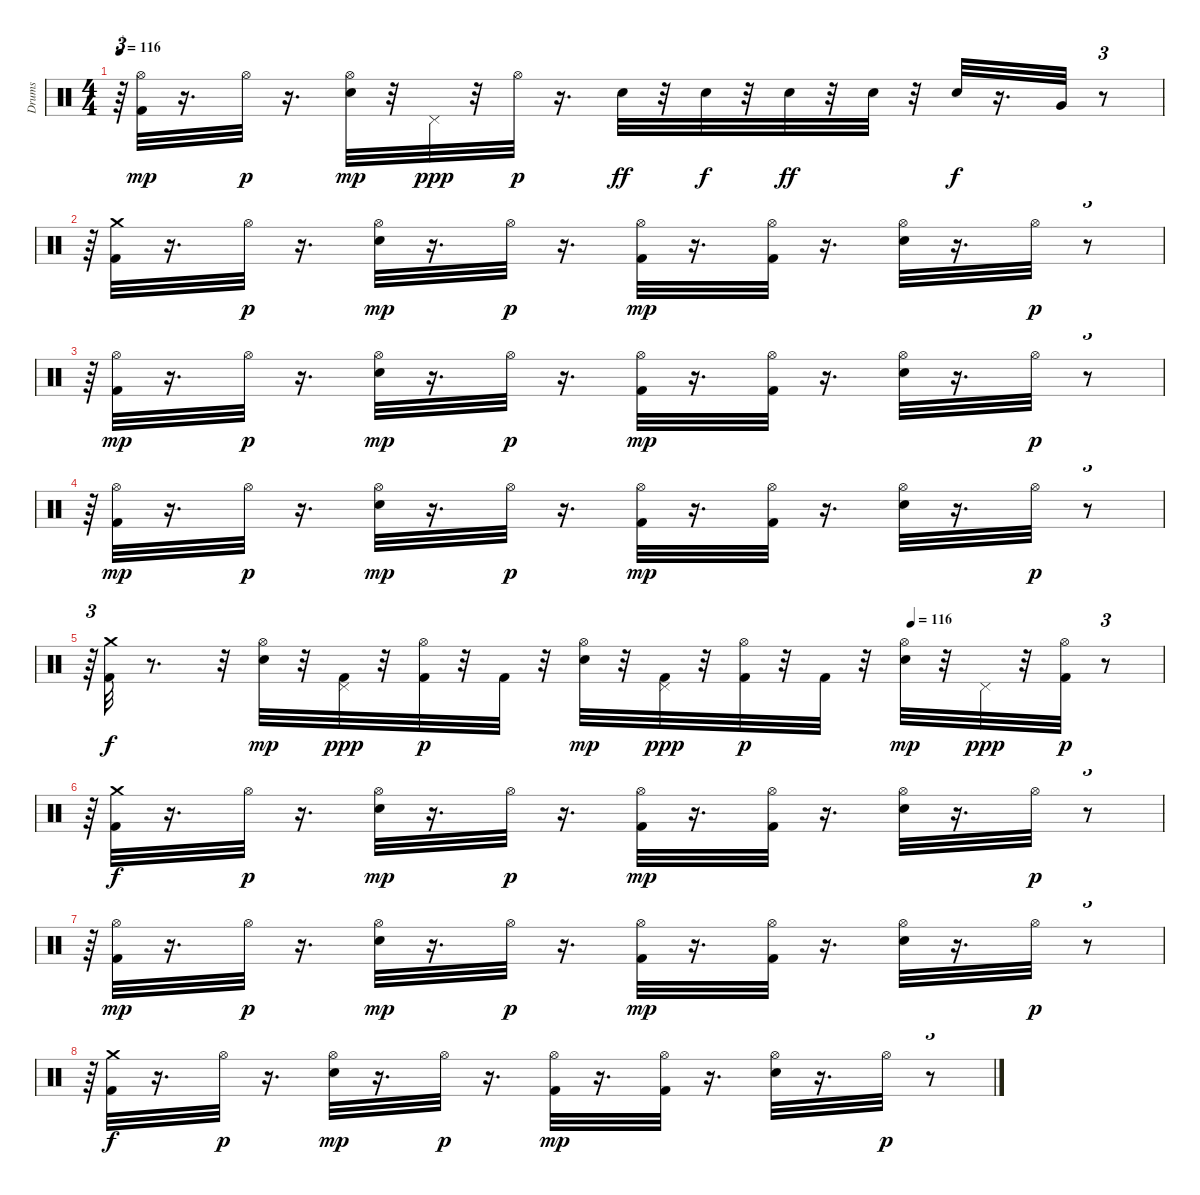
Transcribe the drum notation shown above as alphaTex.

\track ("Drums" "Drums") {instrument percussion}
\staff {score}
\articulation defaults
\ts (4 4)
\tempo 116
\clef neutral
\ks c
r.64{tu (3 2) dy p} ("Kick (hit) 2" "Hi-Hat (open)").32{dy mp} r.16{d} "Hi-Hat (open)".32{dy p} r.16{d} ("Snare (hit) 2" "Hi-Hat (open)").32{dy mp} r.32 "Pedal Hi-Hat (hit)".32{dy ppp} r.32 "Hi-Hat (open)".32{dy p} r.16{d} "Snare (hit) 2".32{dy ff} r.32 "Snare (hit) 2".32{dy f} r.32 "Snare (hit) 2".32{dy ff} r.32 "Snare (hit) 2".32 r.32 "Snare (hit) 2".32{dy f} r.16{d} "Very Low Tom (hit)".32 r.8{tu (3 2)} |
r.64{tu (3 2)} ("Crash medium (hit)" "Kick (hit) 2").32 r.16{d} "Hi-Hat (open)".32{dy p} r.16{d} ("Hi-Hat (open)" "Snare (hit) 2").32{dy mp} r.16{d} "Hi-Hat (open)".32{dy p} r.16{d} ("Kick (hit) 2" "Hi-Hat (open)").32{dy mp} r.16{d} ("Hi-Hat (open)" "Kick (hit) 2").32 r.16{d} ("Snare (hit) 2" "Hi-Hat (open)").32 r.16{d} "Hi-Hat (open)".32{dy p} r.8{tu (3 2)} |
r.64{tu (3 2)} ("Kick (hit) 2" "Hi-Hat (open)").32{dy mp} r.16{d} "Hi-Hat (open)".32{dy p} r.16{d} ("Hi-Hat (open)" "Snare (hit) 2").32{dy mp} r.16{d} "Hi-Hat (open)".32{dy p} r.16{d} ("Kick (hit) 2" "Hi-Hat (open)").32{dy mp} r.16{d} ("Hi-Hat (open)" "Kick (hit) 2").32 r.16{d} ("Snare (hit) 2" "Hi-Hat (open)").32 r.16{d} "Hi-Hat (open)".32{dy p} r.8{tu (3 2)} |
r.64{tu (3 2)} ("Kick (hit) 2" "Hi-Hat (open)").32{dy mp} r.16{d} "Hi-Hat (open)".32{dy p} r.16{d} ("Hi-Hat (open)" "Snare (hit) 2").32{dy mp} r.16{d} "Hi-Hat (open)".32{dy p} r.16{d} ("Kick (hit) 2" "Hi-Hat (open)").32{dy mp} r.16{d} ("Hi-Hat (open)" "Kick (hit) 2").32 r.16{d} ("Snare (hit) 2" "Hi-Hat (open)").32 r.16{d} "Hi-Hat (open)".32{dy p} r.8{tu (3 2)} |
\tempo (116 0.765625)
r.64{tu (3 2)} ("Kick (hit) 2" "Crash medium (hit)").32{dy f} r.8{d} r.32 ("Snare (hit) 2" "Hi-Hat (open)").32{dy mp} r.32 ("Kick (hit) 2" "Pedal Hi-Hat (hit)").32{dy ppp} r.32 ("Kick (hit) 2" "Hi-Hat (open)").32{dy p} r.32 "Kick (hit) 2".32 r.32 ("Snare (hit) 2" "Hi-Hat (open)").32{dy mp} r.32 ("Kick (hit) 2" "Pedal Hi-Hat (hit)").32{dy ppp} r.32 ("Kick (hit) 2" "Hi-Hat (open)").32{dy p} r.32 "Kick (hit) 2".32 r.32 ("Snare (hit) 2" "Hi-Hat (open)").32{dy mp} r.32 "Pedal Hi-Hat (hit)".32{dy ppp} r.32 ("Kick (hit) 2" "Hi-Hat (open)").32{dy p} r.8{tu (3 2)} |
r.64{tu (3 2)} ("Crash medium (hit)" "Kick (hit) 2").32{dy f} r.16{d} "Hi-Hat (open)".32{dy p} r.16{d} ("Hi-Hat (open)" "Snare (hit) 2").32{dy mp} r.16{d} "Hi-Hat (open)".32{dy p} r.16{d} ("Kick (hit) 2" "Hi-Hat (open)").32{dy mp} r.16{d} ("Hi-Hat (open)" "Kick (hit) 2").32 r.16{d} ("Snare (hit) 2" "Hi-Hat (open)").32 r.16{d} "Hi-Hat (open)".32{dy p} r.8{tu (3 2)} |
r.64{tu (3 2)} ("Kick (hit) 2" "Hi-Hat (open)").32{dy mp} r.16{d} "Hi-Hat (open)".32{dy p} r.16{d} ("Hi-Hat (open)" "Snare (hit) 2").32{dy mp} r.16{d} "Hi-Hat (open)".32{dy p} r.16{d} ("Kick (hit) 2" "Hi-Hat (open)").32{dy mp} r.16{d} ("Hi-Hat (open)" "Kick (hit) 2").32 r.16{d} ("Snare (hit) 2" "Hi-Hat (open)").32 r.16{d} "Hi-Hat (open)".32{dy p} r.8{tu (3 2)} |
r.64{tu (3 2)} ("Crash medium (hit)" "Kick (hit) 2").32{dy f} r.16{d} "Hi-Hat (open)".32{dy p} r.16{d} ("Hi-Hat (open)" "Snare (hit) 2").32{dy mp} r.16{d} "Hi-Hat (open)".32{dy p} r.16{d} ("Kick (hit) 2" "Hi-Hat (open)").32{dy mp} r.16{d} ("Hi-Hat (open)" "Kick (hit) 2").32 r.16{d} ("Snare (hit) 2" "Hi-Hat (open)").32 r.16{d} "Hi-Hat (open)".32{dy p} r.8{tu (3 2)}
